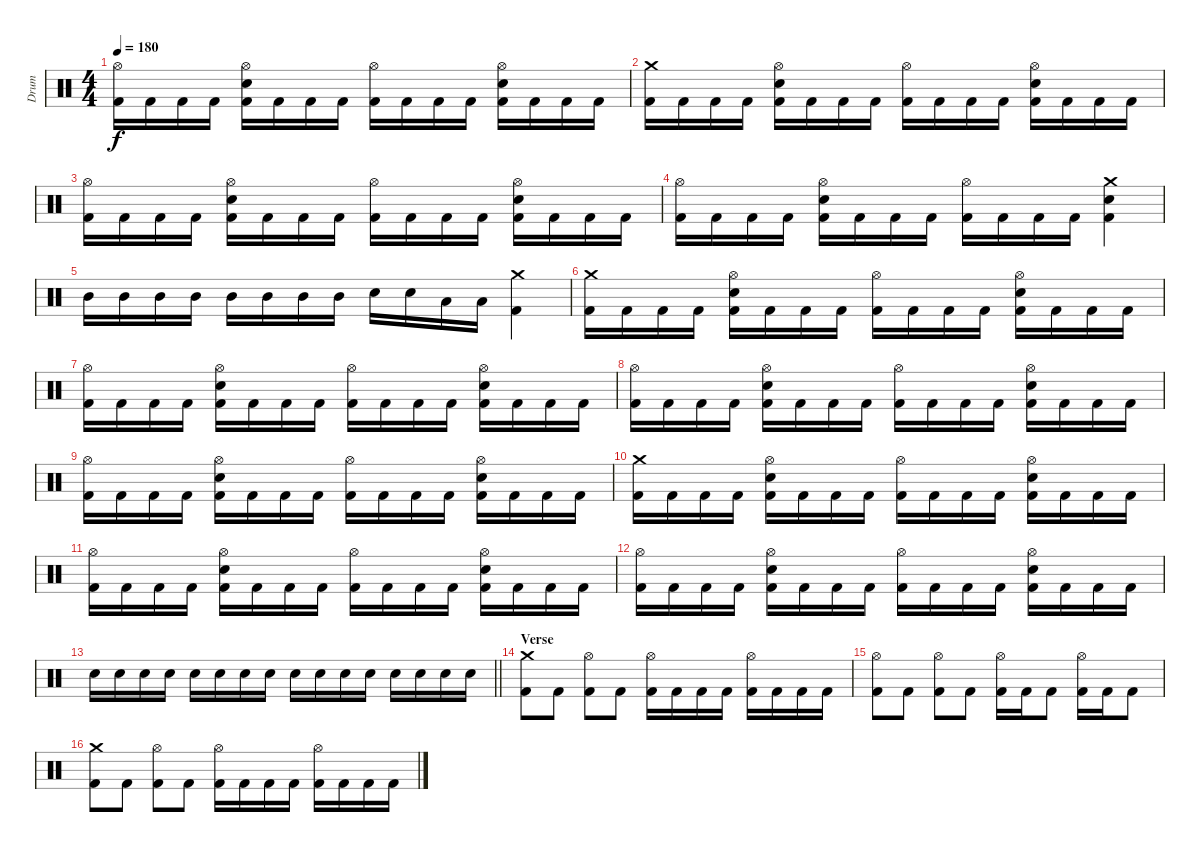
\track ("Drum" "Drum") {instrument percussion}
\staff
\articulation defaults
\ts (4 4)
\tempo 180
\clef neutral
\ks c
("Hi-Hat (open)" "Kick (hit) 2").16{dy f} "Kick (hit) 2".16 "Kick (hit) 2".16 "Kick (hit) 2".16 ("Hi-Hat (open)" "Electric Snare (hit)" "Kick (hit) 2").16 "Kick (hit) 2".16 "Kick (hit) 2".16 "Kick (hit) 2".16 ("Hi-Hat (open)" "Kick (hit) 2").16 "Kick (hit) 2".16 "Kick (hit) 2".16 "Kick (hit) 2".16 ("Hi-Hat (open)" "Electric Snare (hit)" "Kick (hit) 2").16 "Kick (hit) 2".16 "Kick (hit) 2".16 "Kick (hit) 2".16 |
("Crash medium (hit)" "Kick (hit) 2").16 "Kick (hit) 2".16 "Kick (hit) 2".16 "Kick (hit) 2".16 ("Hi-Hat (open)" "Electric Snare (hit)" "Kick (hit) 2").16 "Kick (hit) 2".16 "Kick (hit) 2".16 "Kick (hit) 2".16 ("Hi-Hat (open)" "Kick (hit) 2").16 "Kick (hit) 2".16 "Kick (hit) 2".16 "Kick (hit) 2".16 ("Hi-Hat (open)" "Electric Snare (hit)" "Kick (hit) 2").16 "Kick (hit) 2".16 "Kick (hit) 2".16 "Kick (hit) 2".16 |
("Hi-Hat (open)" "Kick (hit) 2").16 "Kick (hit) 2".16 "Kick (hit) 2".16 "Kick (hit) 2".16 ("Hi-Hat (open)" "Electric Snare (hit)" "Kick (hit) 2").16 "Kick (hit) 2".16 "Kick (hit) 2".16 "Kick (hit) 2".16 ("Hi-Hat (open)" "Kick (hit) 2").16 "Kick (hit) 2".16 "Kick (hit) 2".16 "Kick (hit) 2".16 ("Hi-Hat (open)" "Electric Snare (hit)" "Kick (hit) 2").16 "Kick (hit) 2".16 "Kick (hit) 2".16 "Kick (hit) 2".16 |
("Hi-Hat (open)" "Kick (hit) 2").16 "Kick (hit) 2".16 "Kick (hit) 2".16 "Kick (hit) 2".16 ("Hi-Hat (open)" "Electric Snare (hit)" "Kick (hit) 2").16 "Kick (hit) 2".16 "Kick (hit) 2".16 "Kick (hit) 2".16 ("Hi-Hat (open)" "Kick (hit) 2").16 "Kick (hit) 2".16 "Kick (hit) 2".16 "Kick (hit) 2".16 ("Crash medium (hit)" "Electric Snare (hit)" "Kick (hit) 2").4 |
"Mid Tom (hit)".16 "Mid Tom (hit)".16 "Mid Tom (hit)".16 "Mid Tom (hit)".16 "Mid Tom (hit)".16 "Mid Tom (hit)".16 "Mid Tom (hit)".16 "Mid Tom (hit)".16 "Electric Snare (hit)".16 "Electric Snare (hit)".16 "Low Tom (hit)".16 "Low Tom (hit)".16 ("Crash medium (hit)" "Kick (hit) 2").4 |
("Crash medium (hit)" "Kick (hit) 2").16 "Kick (hit) 2".16 "Kick (hit) 2".16 "Kick (hit) 2".16 ("Hi-Hat (open)" "Electric Snare (hit)" "Kick (hit) 2").16 "Kick (hit) 2".16 "Kick (hit) 2".16 "Kick (hit) 2".16 ("Hi-Hat (open)" "Kick (hit) 2").16 "Kick (hit) 2".16 "Kick (hit) 2".16 "Kick (hit) 2".16 ("Hi-Hat (open)" "Electric Snare (hit)" "Kick (hit) 2").16 "Kick (hit) 2".16 "Kick (hit) 2".16 "Kick (hit) 2".16 |
("Hi-Hat (open)" "Kick (hit) 2").16 "Kick (hit) 2".16 "Kick (hit) 2".16 "Kick (hit) 2".16 ("Hi-Hat (open)" "Electric Snare (hit)" "Kick (hit) 2").16 "Kick (hit) 2".16 "Kick (hit) 2".16 "Kick (hit) 2".16 ("Hi-Hat (open)" "Kick (hit) 2").16 "Kick (hit) 2".16 "Kick (hit) 2".16 "Kick (hit) 2".16 ("Hi-Hat (open)" "Electric Snare (hit)" "Kick (hit) 2").16 "Kick (hit) 2".16 "Kick (hit) 2".16 "Kick (hit) 2".16 |
("Hi-Hat (open)" "Kick (hit) 2").16 "Kick (hit) 2".16 "Kick (hit) 2".16 "Kick (hit) 2".16 ("Hi-Hat (open)" "Electric Snare (hit)" "Kick (hit) 2").16 "Kick (hit) 2".16 "Kick (hit) 2".16 "Kick (hit) 2".16 ("Hi-Hat (open)" "Kick (hit) 2").16 "Kick (hit) 2".16 "Kick (hit) 2".16 "Kick (hit) 2".16 ("Hi-Hat (open)" "Electric Snare (hit)" "Kick (hit) 2").16 "Kick (hit) 2".16 "Kick (hit) 2".16 "Kick (hit) 2".16 |
("Hi-Hat (open)" "Kick (hit) 2").16 "Kick (hit) 2".16 "Kick (hit) 2".16 "Kick (hit) 2".16 ("Hi-Hat (open)" "Electric Snare (hit)" "Kick (hit) 2").16 "Kick (hit) 2".16 "Kick (hit) 2".16 "Kick (hit) 2".16 ("Hi-Hat (open)" "Kick (hit) 2").16 "Kick (hit) 2".16 "Kick (hit) 2".16 "Kick (hit) 2".16 ("Hi-Hat (open)" "Electric Snare (hit)" "Kick (hit) 2").16 "Kick (hit) 2".16 "Kick (hit) 2".16 "Kick (hit) 2".16 |
("Crash medium (hit)" "Kick (hit) 2").16 "Kick (hit) 2".16 "Kick (hit) 2".16 "Kick (hit) 2".16 ("Hi-Hat (open)" "Electric Snare (hit)" "Kick (hit) 2").16 "Kick (hit) 2".16 "Kick (hit) 2".16 "Kick (hit) 2".16 ("Hi-Hat (open)" "Kick (hit) 2").16 "Kick (hit) 2".16 "Kick (hit) 2".16 "Kick (hit) 2".16 ("Hi-Hat (open)" "Electric Snare (hit)" "Kick (hit) 2").16 "Kick (hit) 2".16 "Kick (hit) 2".16 "Kick (hit) 2".16 |
("Hi-Hat (open)" "Kick (hit) 2").16 "Kick (hit) 2".16 "Kick (hit) 2".16 "Kick (hit) 2".16 ("Hi-Hat (open)" "Electric Snare (hit)" "Kick (hit) 2").16 "Kick (hit) 2".16 "Kick (hit) 2".16 "Kick (hit) 2".16 ("Hi-Hat (open)" "Kick (hit) 2").16 "Kick (hit) 2".16 "Kick (hit) 2".16 "Kick (hit) 2".16 ("Hi-Hat (open)" "Electric Snare (hit)" "Kick (hit) 2").16 "Kick (hit) 2".16 "Kick (hit) 2".16 "Kick (hit) 2".16 |
("Hi-Hat (open)" "Kick (hit) 2").16 "Kick (hit) 2".16 "Kick (hit) 2".16 "Kick (hit) 2".16 ("Hi-Hat (open)" "Electric Snare (hit)" "Kick (hit) 2").16 "Kick (hit) 2".16 "Kick (hit) 2".16 "Kick (hit) 2".16 ("Hi-Hat (open)" "Kick (hit) 2").16 "Kick (hit) 2".16 "Kick (hit) 2".16 "Kick (hit) 2".16 ("Hi-Hat (open)" "Electric Snare (hit)" "Kick (hit) 2").16 "Kick (hit) 2".16 "Kick (hit) 2".16 "Kick (hit) 2".16 |
\barLineRight lightlight "Electric Snare (hit)".16 "Electric Snare (hit)".16 "Electric Snare (hit)".16 "Electric Snare (hit)".16 "Electric Snare (hit)".16 "Electric Snare (hit)".16 "Electric Snare (hit)".16 "Electric Snare (hit)".16 "Electric Snare (hit)".16 "Electric Snare (hit)".16 "Electric Snare (hit)".16 "Electric Snare (hit)".16 "Electric Snare (hit)".16 "Electric Snare (hit)".16 "Electric Snare (hit)".16 "Electric Snare (hit)".16
|
\section ("" "Verse")
("Crash medium (hit)" "Kick (hit) 2").8 "Kick (hit) 2".8 ("Hi-Hat (open)" "Kick (hit) 2").8 "Kick (hit) 2".8 ("Hi-Hat (open)" "Kick (hit) 2").16 "Kick (hit) 2".16 "Kick (hit) 2".16 "Kick (hit) 2".16 ("Hi-Hat (open)" "Kick (hit) 2").16 "Kick (hit) 2".16 "Kick (hit) 2".16 "Kick (hit) 2".16 |
("Hi-Hat (open)" "Kick (hit) 2").8 "Kick (hit) 2".8 ("Hi-Hat (open)" "Kick (hit) 2").8 "Kick (hit) 2".8 ("Hi-Hat (open)" "Kick (hit) 2").16 "Kick (hit) 2".16 "Kick (hit) 2".8 ("Hi-Hat (open)" "Kick (hit) 2").16 "Kick (hit) 2".16 "Kick (hit) 2".8 |
("Crash medium (hit)" "Kick (hit) 2").8 "Kick (hit) 2".8 ("Hi-Hat (open)" "Kick (hit) 2").8 "Kick (hit) 2".8 ("Hi-Hat (open)" "Kick (hit) 2").16 "Kick (hit) 2".16 "Kick (hit) 2".16 "Kick (hit) 2".16 ("Hi-Hat (open)" "Kick (hit) 2").16 "Kick (hit) 2".16 "Kick (hit) 2".16 "Kick (hit) 2".16
